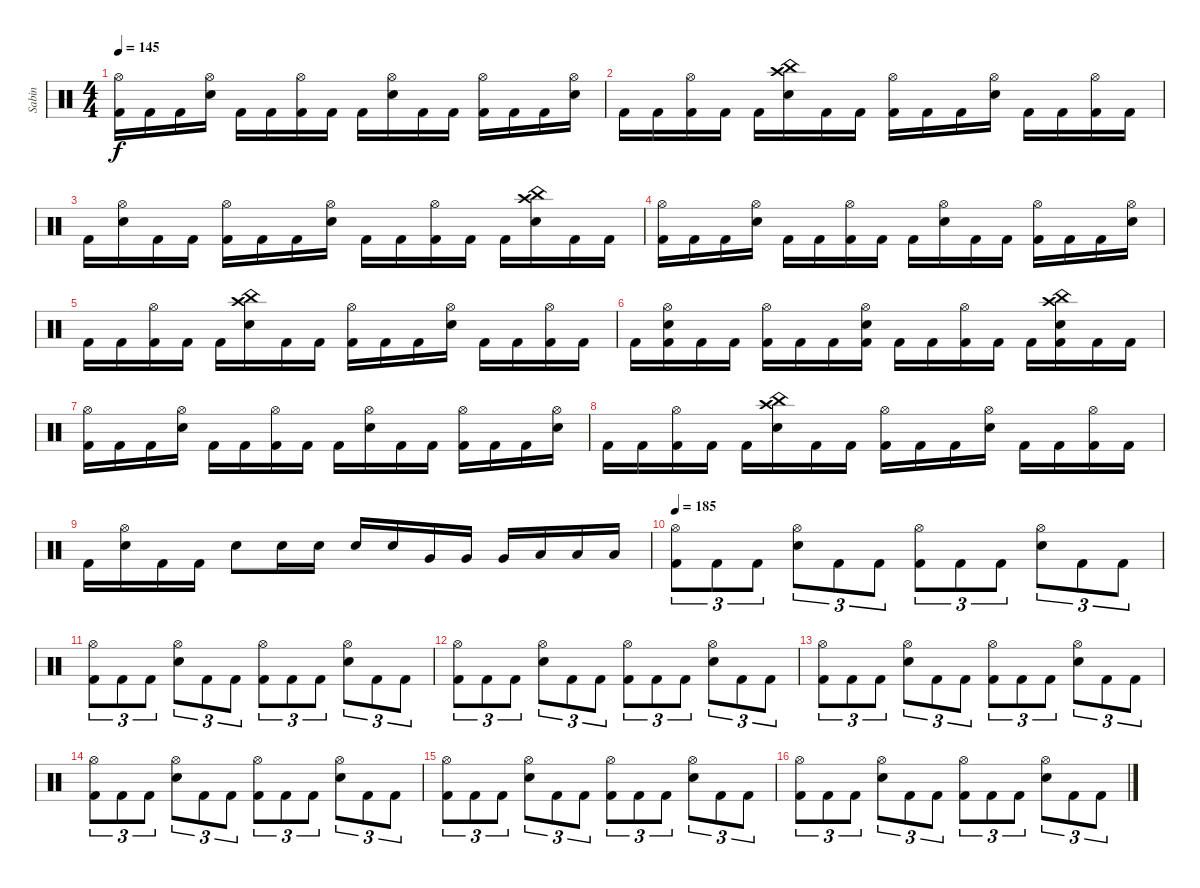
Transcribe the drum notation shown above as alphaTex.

\track ("Sabin" "Sabin") {instrument percussion}
\staff {score}
\articulation defaults
\ts (4 4)
\tempo 145
\clef neutral
\ks c
("Hi-Hat (open)" "Kick (hit) 2").16{dy f} "Kick (hit) 2".16 "Kick (hit) 2".16 ("Hi-Hat (open)" "Snare (hit) 2").16 "Kick (hit) 2".16 "Kick (hit) 2".16 ("Hi-Hat (open)" "Kick (hit) 2").16 "Kick (hit) 2".16 "Kick (hit) 2".16 ("Hi-Hat (open)" "Snare (hit) 2").16 "Kick (hit) 2".16 "Kick (hit) 2".16 ("Hi-Hat (open)" "Kick (hit) 2").16 "Kick (hit) 2".16 "Kick (hit) 2".16 ("Hi-Hat (open)" "Snare (hit) 2").16 |
"Kick (hit) 2".16 "Kick (hit) 2".16 ("Hi-Hat (open)" "Kick (hit) 2").16 "Kick (hit) 2".16 "Kick (hit) 2".16 ("China (hit)" "Crash high (hit)" "Snare (hit) 2").16 "Kick (hit) 2".16 "Kick (hit) 2".16 ("Hi-Hat (open)" "Kick (hit) 2").16 "Kick (hit) 2".16 "Kick (hit) 2".16 ("Hi-Hat (open)" "Snare (hit) 2").16 "Kick (hit) 2".16 "Kick (hit) 2".16 ("Hi-Hat (open)" "Kick (hit) 2").16 "Kick (hit) 2".16 |
"Kick (hit) 2".16 ("Hi-Hat (open)" "Snare (hit) 2").16 "Kick (hit) 2".16 "Kick (hit) 2".16 ("Hi-Hat (open)" "Kick (hit) 2").16 "Kick (hit) 2".16 "Kick (hit) 2".16 ("Hi-Hat (open)" "Snare (hit) 2").16 "Kick (hit) 2".16 "Kick (hit) 2".16 ("Hi-Hat (open)" "Kick (hit) 2").16 "Kick (hit) 2".16 "Kick (hit) 2".16 ("China (hit)" "Crash high (hit)" "Snare (hit) 2").16 "Kick (hit) 2".16 "Kick (hit) 2".16 |
("Hi-Hat (open)" "Kick (hit) 2").16 "Kick (hit) 2".16 "Kick (hit) 2".16 ("Hi-Hat (open)" "Snare (hit) 2").16 "Kick (hit) 2".16 "Kick (hit) 2".16 ("Hi-Hat (open)" "Kick (hit) 2").16 "Kick (hit) 2".16 "Kick (hit) 2".16 ("Hi-Hat (open)" "Snare (hit) 2").16 "Kick (hit) 2".16 "Kick (hit) 2".16 ("Hi-Hat (open)" "Kick (hit) 2").16 "Kick (hit) 2".16 "Kick (hit) 2".16 ("Hi-Hat (open)" "Snare (hit) 2").16 |
"Kick (hit) 2".16 "Kick (hit) 2".16 ("Hi-Hat (open)" "Kick (hit) 2").16 "Kick (hit) 2".16 "Kick (hit) 2".16 ("Crash high (hit)" "China (hit)" "Snare (hit) 2").16 "Kick (hit) 2".16 "Kick (hit) 2".16 ("Hi-Hat (open)" "Kick (hit) 2").16 "Kick (hit) 2".16 "Kick (hit) 2".16 ("Hi-Hat (open)" "Snare (hit) 2").16 "Kick (hit) 2".16 "Kick (hit) 2".16 ("Hi-Hat (open)" "Kick (hit) 2").16 "Kick (hit) 2".16 |
"Kick (hit) 2".16 ("Hi-Hat (open)" "Snare (hit) 2" "Kick (hit) 2").16 "Kick (hit) 2".16 "Kick (hit) 2".16 ("Hi-Hat (open)" "Kick (hit) 2").16 "Kick (hit) 2".16 "Kick (hit) 2".16 ("Hi-Hat (open)" "Snare (hit) 2" "Kick (hit) 2").16 "Kick (hit) 2".16 "Kick (hit) 2".16 ("Hi-Hat (open)" "Kick (hit) 2").16 "Kick (hit) 2".16 "Kick (hit) 2".16 ("Crash high (hit)" "China (hit)" "Snare (hit) 2" "Kick (hit) 2").16 "Kick (hit) 2".16 "Kick (hit) 2".16 |
("Hi-Hat (open)" "Kick (hit) 2").16 "Kick (hit) 2".16 "Kick (hit) 2".16 ("Hi-Hat (open)" "Snare (hit) 2").16 "Kick (hit) 2".16 "Kick (hit) 2".16 ("Hi-Hat (open)" "Kick (hit) 2").16 "Kick (hit) 2".16 "Kick (hit) 2".16 ("Hi-Hat (open)" "Snare (hit) 2").16 "Kick (hit) 2".16 "Kick (hit) 2".16 ("Hi-Hat (open)" "Kick (hit) 2").16 "Kick (hit) 2".16 "Kick (hit) 2".16 ("Hi-Hat (open)" "Snare (hit) 2").16 |
"Kick (hit) 2".16 "Kick (hit) 2".16 ("Hi-Hat (open)" "Kick (hit) 2").16 "Kick (hit) 2".16 "Kick (hit) 2".16 ("China (hit)" "Crash high (hit)" "Snare (hit) 2").16 "Kick (hit) 2".16 "Kick (hit) 2".16 ("Hi-Hat (open)" "Kick (hit) 2").16 "Kick (hit) 2".16 "Kick (hit) 2".16 ("Hi-Hat (open)" "Snare (hit) 2").16 "Kick (hit) 2".16 "Kick (hit) 2".16 ("Hi-Hat (open)" "Kick (hit) 2").16 "Kick (hit) 2".16 |
"Kick (hit) 2".16 ("Hi-Hat (open)" "Snare (hit) 2").16 "Kick (hit) 2".16 "Kick (hit) 2".16 "Snare (hit) 2".8 "Snare (hit) 2".16 "Snare (hit) 2".16 "Snare (hit) 2".16 "Snare (hit) 2".16 "Very Low Tom (hit)".16 "Very Low Tom (hit)".16 "Very Low Tom (hit)".16 "Low Floor Tom (hit)".16 "Low Floor Tom (hit)".16 "Low Floor Tom (hit)".16 |
\tempo 185
("Hi-Hat (open)" "Kick (hit) 2").8{tu (3 2)} "Kick (hit) 2".8{tu (3 2)} "Kick (hit) 2".8{tu (3 2)} ("Hi-Hat (open)" "Snare (hit) 2").8{tu (3 2)} "Kick (hit) 2".8{tu (3 2)} "Kick (hit) 2".8{tu (3 2)} ("Hi-Hat (open)" "Kick (hit) 2").8{tu (3 2)} "Kick (hit) 2".8{tu (3 2)} "Kick (hit) 2".8{tu (3 2)} ("Hi-Hat (open)" "Snare (hit) 2").8{tu (3 2)} "Kick (hit) 2".8{tu (3 2)} "Kick (hit) 2".8{tu (3 2)} |
("Hi-Hat (open)" "Kick (hit) 2").8{tu (3 2)} "Kick (hit) 2".8{tu (3 2)} "Kick (hit) 2".8{tu (3 2)} ("Hi-Hat (open)" "Snare (hit) 2").8{tu (3 2)} "Kick (hit) 2".8{tu (3 2)} "Kick (hit) 2".8{tu (3 2)} ("Hi-Hat (open)" "Kick (hit) 2").8{tu (3 2)} "Kick (hit) 2".8{tu (3 2)} "Kick (hit) 2".8{tu (3 2)} ("Hi-Hat (open)" "Snare (hit) 2").8{tu (3 2)} "Kick (hit) 2".8{tu (3 2)} "Kick (hit) 2".8{tu (3 2)} |
("Hi-Hat (open)" "Kick (hit) 2").8{tu (3 2)} "Kick (hit) 2".8{tu (3 2)} "Kick (hit) 2".8{tu (3 2)} ("Hi-Hat (open)" "Snare (hit) 2").8{tu (3 2)} "Kick (hit) 2".8{tu (3 2)} "Kick (hit) 2".8{tu (3 2)} ("Hi-Hat (open)" "Kick (hit) 2").8{tu (3 2)} "Kick (hit) 2".8{tu (3 2)} "Kick (hit) 2".8{tu (3 2)} ("Hi-Hat (open)" "Snare (hit) 2").8{tu (3 2)} "Kick (hit) 2".8{tu (3 2)} "Kick (hit) 2".8{tu (3 2)} |
("Hi-Hat (open)" "Kick (hit) 2").8{tu (3 2)} "Kick (hit) 2".8{tu (3 2)} "Kick (hit) 2".8{tu (3 2)} ("Hi-Hat (open)" "Snare (hit) 2").8{tu (3 2)} "Kick (hit) 2".8{tu (3 2)} "Kick (hit) 2".8{tu (3 2)} ("Hi-Hat (open)" "Kick (hit) 2").8{tu (3 2)} "Kick (hit) 2".8{tu (3 2)} "Kick (hit) 2".8{tu (3 2)} ("Hi-Hat (open)" "Snare (hit) 2").8{tu (3 2)} "Kick (hit) 2".8{tu (3 2)} "Kick (hit) 2".8{tu (3 2)} |
("Hi-Hat (open)" "Kick (hit) 2").8{tu (3 2)} "Kick (hit) 2".8{tu (3 2)} "Kick (hit) 2".8{tu (3 2)} ("Hi-Hat (open)" "Snare (hit) 2").8{tu (3 2)} "Kick (hit) 2".8{tu (3 2)} "Kick (hit) 2".8{tu (3 2)} ("Hi-Hat (open)" "Kick (hit) 2").8{tu (3 2)} "Kick (hit) 2".8{tu (3 2)} "Kick (hit) 2".8{tu (3 2)} ("Hi-Hat (open)" "Snare (hit) 2").8{tu (3 2)} "Kick (hit) 2".8{tu (3 2)} "Kick (hit) 2".8{tu (3 2)} |
("Hi-Hat (open)" "Kick (hit) 2").8{tu (3 2)} "Kick (hit) 2".8{tu (3 2)} "Kick (hit) 2".8{tu (3 2)} ("Hi-Hat (open)" "Snare (hit) 2").8{tu (3 2)} "Kick (hit) 2".8{tu (3 2)} "Kick (hit) 2".8{tu (3 2)} ("Hi-Hat (open)" "Kick (hit) 2").8{tu (3 2)} "Kick (hit) 2".8{tu (3 2)} "Kick (hit) 2".8{tu (3 2)} ("Hi-Hat (open)" "Snare (hit) 2").8{tu (3 2)} "Kick (hit) 2".8{tu (3 2)} "Kick (hit) 2".8{tu (3 2)} |
("Hi-Hat (open)" "Kick (hit) 2").8{tu (3 2)} "Kick (hit) 2".8{tu (3 2)} "Kick (hit) 2".8{tu (3 2)} ("Hi-Hat (open)" "Snare (hit) 2").8{tu (3 2)} "Kick (hit) 2".8{tu (3 2)} "Kick (hit) 2".8{tu (3 2)} ("Hi-Hat (open)" "Kick (hit) 2").8{tu (3 2)} "Kick (hit) 2".8{tu (3 2)} "Kick (hit) 2".8{tu (3 2)} ("Hi-Hat (open)" "Snare (hit) 2").8{tu (3 2)} "Kick (hit) 2".8{tu (3 2)} "Kick (hit) 2".8{tu (3 2)}
